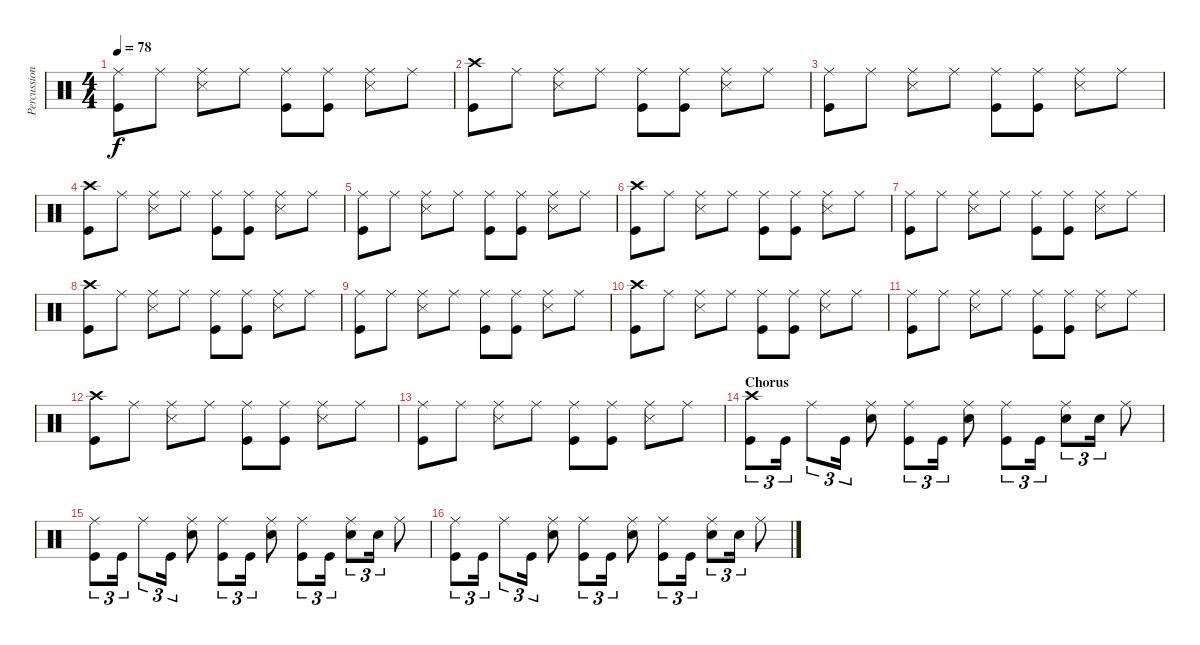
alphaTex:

\track ("Percussion" "Percussion") {instrument percussion}
\staff {score}
\articulation defaults
\ts (4 4)
\tempo 78
\clef neutral
\ks c
("Ride (middle)" "Kick (hit)").8{dy f} "Ride (middle)".8 ("Ride (middle)" "Snare (side stick) 3").8 "Ride (middle)".8 ("Ride (middle)" "Kick (hit)").8 ("Ride (middle)" "Kick (hit)").8 ("Ride (middle)" "Snare (side stick) 3").8 "Ride (middle)".8 |
("Crash high (hit)" "Kick (hit)").8 "Ride (middle)".8 ("Ride (middle)" "Snare (side stick) 3").8 "Ride (middle)".8 ("Ride (middle)" "Kick (hit)").8 ("Ride (middle)" "Kick (hit)").8 ("Ride (middle)" "Snare (side stick) 3").8 "Ride (middle)".8 |
("Ride (middle)" "Kick (hit)").8 "Ride (middle)".8 ("Ride (middle)" "Snare (side stick) 3").8 "Ride (middle)".8 ("Ride (middle)" "Kick (hit)").8 ("Ride (middle)" "Kick (hit)").8 ("Ride (middle)" "Snare (side stick) 3").8 "Ride (middle)".8 |
("Crash high (hit)" "Kick (hit)").8 "Ride (middle)".8 ("Ride (middle)" "Snare (side stick) 3").8 "Ride (middle)".8 ("Ride (middle)" "Kick (hit)").8 ("Ride (middle)" "Kick (hit)").8 ("Ride (middle)" "Snare (side stick) 3").8 "Ride (middle)".8 |
("Ride (middle)" "Kick (hit)").8 "Ride (middle)".8 ("Ride (middle)" "Snare (side stick) 3").8 "Ride (middle)".8 ("Ride (middle)" "Kick (hit)").8 ("Ride (middle)" "Kick (hit)").8 ("Ride (middle)" "Snare (side stick) 3").8 "Ride (middle)".8 |
("Crash high (hit)" "Kick (hit)").8 "Ride (middle)".8 ("Ride (middle)" "Snare (side stick) 3").8 "Ride (middle)".8 ("Ride (middle)" "Kick (hit)").8 ("Ride (middle)" "Kick (hit)").8 ("Ride (middle)" "Snare (side stick) 3").8 "Ride (middle)".8 |
("Ride (middle)" "Kick (hit)").8 "Ride (middle)".8 ("Ride (middle)" "Snare (side stick) 3").8 "Ride (middle)".8 ("Ride (middle)" "Kick (hit)").8 ("Ride (middle)" "Kick (hit)").8 ("Ride (middle)" "Snare (side stick) 3").8 "Ride (middle)".8 |
("Crash high (hit)" "Kick (hit)").8 "Ride (middle)".8 ("Ride (middle)" "Snare (side stick) 3").8 "Ride (middle)".8 ("Ride (middle)" "Kick (hit)").8 ("Ride (middle)" "Kick (hit)").8 ("Ride (middle)" "Snare (side stick) 3").8 "Ride (middle)".8 |
("Ride (middle)" "Kick (hit)").8 "Ride (middle)".8 ("Ride (middle)" "Snare (side stick) 3").8 "Ride (middle)".8 ("Ride (middle)" "Kick (hit)").8 ("Ride (middle)" "Kick (hit)").8 ("Ride (middle)" "Snare (side stick) 3").8 "Ride (middle)".8 |
("Crash high (hit)" "Kick (hit)").8 "Ride (middle)".8 ("Ride (middle)" "Snare (side stick) 3").8 "Ride (middle)".8 ("Ride (middle)" "Kick (hit)").8 ("Ride (middle)" "Kick (hit)").8 ("Ride (middle)" "Snare (side stick) 3").8 "Ride (middle)".8 |
("Ride (middle)" "Kick (hit)").8 "Ride (middle)".8 ("Ride (middle)" "Snare (side stick) 3").8 "Ride (middle)".8 ("Ride (middle)" "Kick (hit)").8 ("Ride (middle)" "Kick (hit)").8 ("Ride (middle)" "Snare (side stick) 3").8 "Ride (middle)".8 |
("Crash high (hit)" "Kick (hit)").8 "Ride (middle)".8 ("Ride (middle)" "Snare (side stick) 3").8 "Ride (middle)".8 ("Ride (middle)" "Kick (hit)").8 ("Ride (middle)" "Kick (hit)").8 ("Ride (middle)" "Snare (side stick) 3").8 "Ride (middle)".8 |
("Ride (middle)" "Kick (hit)").8 "Ride (middle)".8 ("Ride (middle)" "Snare (side stick) 3").8 "Ride (middle)".8 ("Ride (middle)" "Kick (hit)").8 ("Ride (middle)" "Kick (hit)").8 ("Ride (middle)" "Snare (side stick) 3").8 "Ride (middle)".8 |
\section ("" "Chorus")
("Crash high (hit)" "Kick (hit)").8{tu (3 2)} "Kick (hit)".16{tu (3 2)} "Ride (middle)".8{tu (3 2)} "Kick (hit)".16{tu (3 2)} ("Ride (middle)" "Snare (hit) 2").8 ("Ride (middle)" "Kick (hit)").8{tu (3 2)} "Kick (hit)".16{tu (3 2)} ("Ride (middle)" "Snare (hit) 2").8 ("Ride (middle)" "Kick (hit)").8{tu (3 2)} "Kick (hit)".16{tu (3 2)} ("Ride (middle)" "Snare (hit) 2").8{tu (3 2)} "Snare (hit) 2".16{tu (3 2)} "Ride (middle)".8 |
("Ride (middle)" "Kick (hit)").8{tu (3 2)} "Kick (hit)".16{tu (3 2)} "Ride (middle)".8{tu (3 2)} "Kick (hit)".16{tu (3 2)} ("Ride (middle)" "Snare (hit) 2").8 ("Ride (middle)" "Kick (hit)").8{tu (3 2)} "Kick (hit)".16{tu (3 2)} ("Ride (middle)" "Snare (hit) 2").8 ("Ride (middle)" "Kick (hit)").8{tu (3 2)} "Kick (hit)".16{tu (3 2)} ("Ride (middle)" "Snare (hit) 2").8{tu (3 2)} "Snare (hit) 2".16{tu (3 2)} "Ride (middle)".8 |
("Ride (middle)" "Kick (hit)").8{tu (3 2)} "Kick (hit)".16{tu (3 2)} "Ride (middle)".8{tu (3 2)} "Kick (hit)".16{tu (3 2)} ("Ride (middle)" "Snare (hit) 2").8 ("Ride (middle)" "Kick (hit)").8{tu (3 2)} "Kick (hit)".16{tu (3 2)} ("Ride (middle)" "Snare (hit) 2").8 ("Ride (middle)" "Kick (hit)").8{tu (3 2)} "Kick (hit)".16{tu (3 2)} ("Ride (middle)" "Snare (hit) 2").8{tu (3 2)} "Snare (hit) 2".16{tu (3 2)} "Ride (middle)".8
